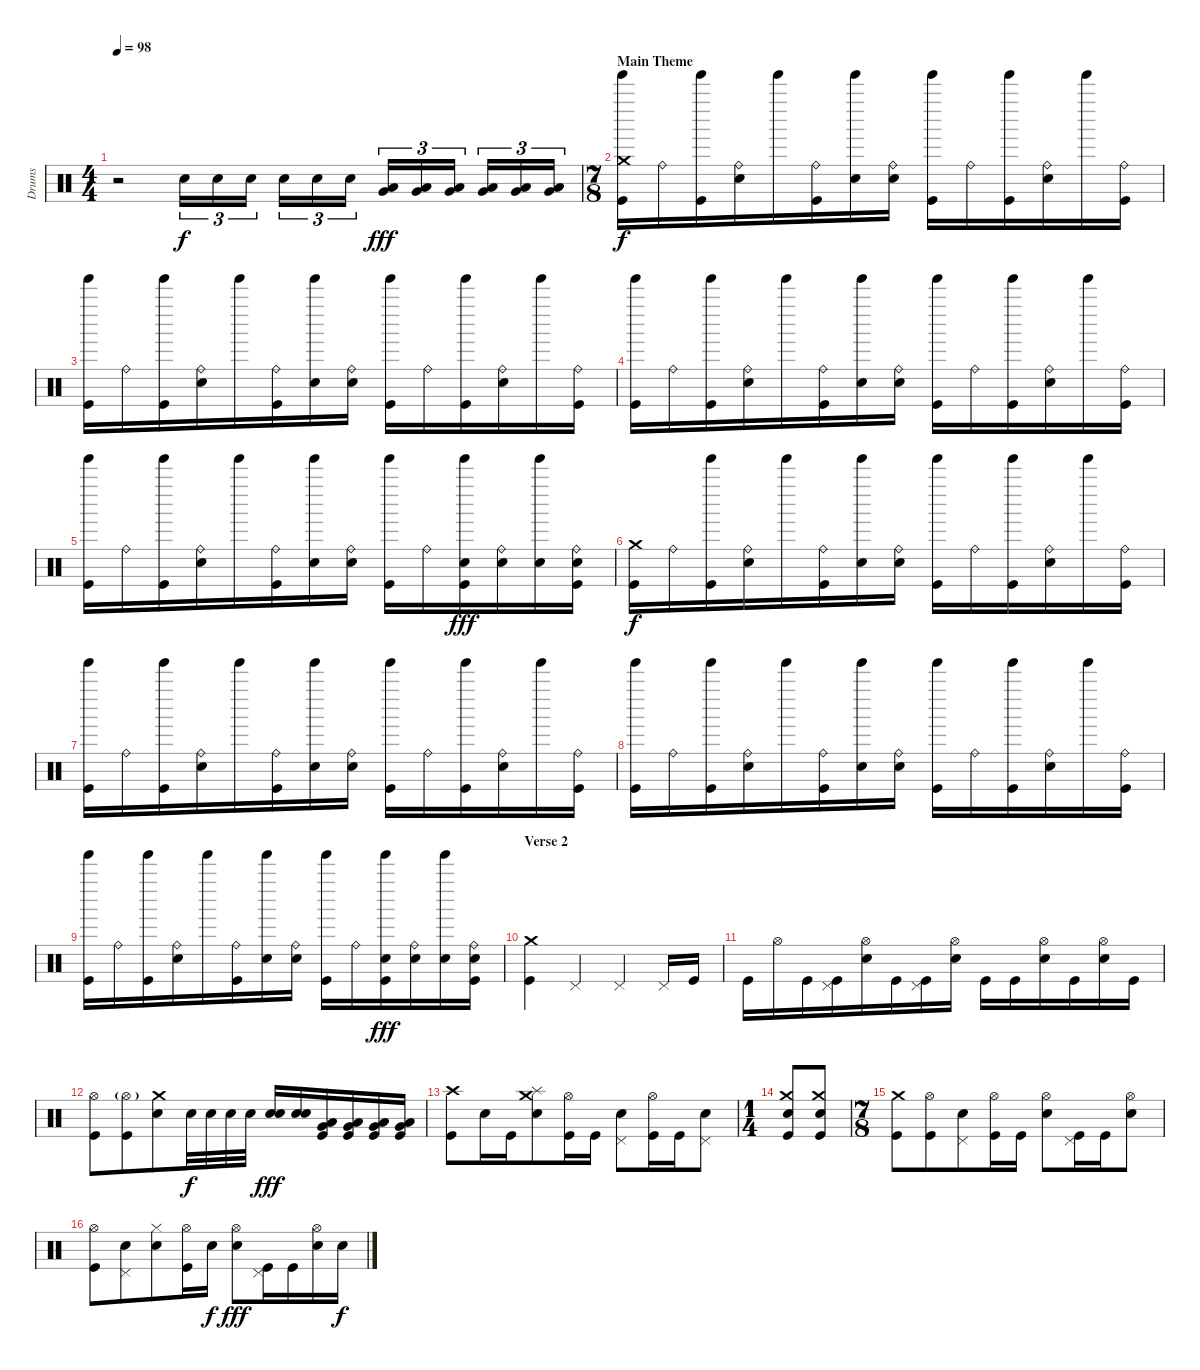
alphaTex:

\track ("Drums" "Drums") {instrument percussion}
\staff {score}
\articulation defaults
\ts (4 4)
\tempo 98
\clef neutral
\ks c
r.2{dy mp} "Electric Snare (hit)".16{tu (3 2) dy f} "Electric Snare (hit)".16{tu (3 2)} "Electric Snare (hit)".16{tu (3 2)} "Electric Snare (hit)".16{tu (3 2)} "Electric Snare (hit)".16{tu (3 2)} "Electric Snare (hit)".16{tu (3 2)} ("Very Low Tom (hit)" "Low Floor Tom (hit)").16{tu (3 2) dy fff} ("Very Low Tom (hit)" "Low Floor Tom (hit)").16{tu (3 2)} ("Very Low Tom (hit)" "Low Floor Tom (hit)").16{tu (3 2)} ("Very Low Tom (hit)" "Low Floor Tom (hit)").16{tu (3 2)} ("Very Low Tom (hit)" "Low Floor Tom (hit)").16{tu (3 2)} ("Very Low Tom (hit)" "Low Floor Tom (hit)").16{tu (3 2)} |
\ts (7 8)
\section ("" "Main Theme")
("Crash medium (hit)" "Tinkle Bell (hit)" "Kick (hit)").16{dy f volume 14} "Ride (bell)".16 ("Tinkle Bell (hit)" "Kick (hit)").16 ("Ride (bell)" "Electric Snare (hit)").16 "Tinkle Bell (hit)".16 ("Ride (bell)" "Kick (hit)").16 ("Tinkle Bell (hit)" "Electric Snare (hit)").16 ("Ride (bell)" "Electric Snare (hit)").16 ("Tinkle Bell (hit)" "Kick (hit)").16 "Ride (bell)".16 ("Tinkle Bell (hit)" "Kick (hit)").16 ("Ride (bell)" "Electric Snare (hit)").16 "Tinkle Bell (hit)".16 ("Ride (bell)" "Kick (hit)").16 |
("Tinkle Bell (hit)" "Kick (hit)").16 "Ride (bell)".16 ("Tinkle Bell (hit)" "Kick (hit)").16 ("Ride (bell)" "Electric Snare (hit)").16 "Tinkle Bell (hit)".16 ("Ride (bell)" "Kick (hit)").16 ("Tinkle Bell (hit)" "Electric Snare (hit)").16 ("Ride (bell)" "Electric Snare (hit)").16 ("Tinkle Bell (hit)" "Kick (hit)").16 "Ride (bell)".16 ("Tinkle Bell (hit)" "Kick (hit)").16 ("Ride (bell)" "Electric Snare (hit)").16 "Tinkle Bell (hit)".16 ("Ride (bell)" "Kick (hit)").16 |
("Tinkle Bell (hit)" "Kick (hit)").16 "Ride (bell)".16 ("Tinkle Bell (hit)" "Kick (hit)").16 ("Ride (bell)" "Electric Snare (hit)").16 "Tinkle Bell (hit)".16 ("Ride (bell)" "Kick (hit)").16 ("Tinkle Bell (hit)" "Electric Snare (hit)").16 ("Ride (bell)" "Electric Snare (hit)").16 ("Tinkle Bell (hit)" "Kick (hit)").16 "Ride (bell)".16 ("Tinkle Bell (hit)" "Kick (hit)").16 ("Ride (bell)" "Electric Snare (hit)").16 "Tinkle Bell (hit)".16 ("Ride (bell)" "Kick (hit)").16 |
("Tinkle Bell (hit)" "Kick (hit)").16 "Ride (bell)".16 ("Tinkle Bell (hit)" "Kick (hit)").16 ("Ride (bell)" "Electric Snare (hit)").16 "Tinkle Bell (hit)".16 ("Ride (bell)" "Kick (hit)").16 ("Tinkle Bell (hit)" "Electric Snare (hit)").16 ("Ride (bell)" "Electric Snare (hit)").16 ("Tinkle Bell (hit)" "Kick (hit)").16 "Ride (bell)".16 ("Tinkle Bell (hit)" "Electric Snare (hit)" "Kick (hit)").16{dy fff} ("Ride (bell)" "Electric Snare (hit)").16 ("Tinkle Bell (hit)" "Electric Snare (hit)").16 ("Ride (bell)" "Electric Snare (hit)" "Kick (hit)").16 |
("Crash medium (hit)" "Kick (hit)").16{dy f} "Ride (bell)".16 ("Tinkle Bell (hit)" "Kick (hit)").16 ("Ride (bell)" "Electric Snare (hit)").16 "Tinkle Bell (hit)".16 ("Ride (bell)" "Kick (hit)").16 ("Tinkle Bell (hit)" "Electric Snare (hit)").16 ("Ride (bell)" "Electric Snare (hit)").16 ("Tinkle Bell (hit)" "Kick (hit)").16 "Ride (bell)".16 ("Tinkle Bell (hit)" "Kick (hit)").16 ("Ride (bell)" "Electric Snare (hit)").16 "Tinkle Bell (hit)".16 ("Ride (bell)" "Kick (hit)").16 |
("Tinkle Bell (hit)" "Kick (hit)").16 "Ride (bell)".16 ("Tinkle Bell (hit)" "Kick (hit)").16 ("Ride (bell)" "Electric Snare (hit)").16 "Tinkle Bell (hit)".16 ("Ride (bell)" "Kick (hit)").16 ("Tinkle Bell (hit)" "Electric Snare (hit)").16 ("Ride (bell)" "Electric Snare (hit)").16 ("Tinkle Bell (hit)" "Kick (hit)").16 "Ride (bell)".16 ("Tinkle Bell (hit)" "Kick (hit)").16 ("Ride (bell)" "Electric Snare (hit)").16 "Tinkle Bell (hit)".16 ("Ride (bell)" "Kick (hit)").16 |
("Tinkle Bell (hit)" "Kick (hit)").16 "Ride (bell)".16 ("Tinkle Bell (hit)" "Kick (hit)").16 ("Ride (bell)" "Electric Snare (hit)").16 "Tinkle Bell (hit)".16 ("Ride (bell)" "Kick (hit)").16 ("Tinkle Bell (hit)" "Electric Snare (hit)").16 ("Ride (bell)" "Electric Snare (hit)").16 ("Tinkle Bell (hit)" "Kick (hit)").16 "Ride (bell)".16 ("Tinkle Bell (hit)" "Kick (hit)").16 ("Ride (bell)" "Electric Snare (hit)").16 "Tinkle Bell (hit)".16 ("Ride (bell)" "Kick (hit)").16 |
("Tinkle Bell (hit)" "Kick (hit)").16 "Ride (bell)".16 ("Tinkle Bell (hit)" "Kick (hit)").16 ("Ride (bell)" "Electric Snare (hit)").16 "Tinkle Bell (hit)".16 ("Ride (bell)" "Kick (hit)").16 ("Tinkle Bell (hit)" "Electric Snare (hit)").16 ("Ride (bell)" "Electric Snare (hit)").16 ("Tinkle Bell (hit)" "Kick (hit)").16 "Ride (bell)".16 ("Tinkle Bell (hit)" "Electric Snare (hit)" "Kick (hit)").16{dy fff} ("Ride (bell)" "Electric Snare (hit)").16 ("Tinkle Bell (hit)" "Electric Snare (hit)").16 ("Ride (bell)" "Electric Snare (hit)" "Kick (hit)").16 |
\section ("" "Verse 2")
("Crash medium (hit)" "Kick (hit)").4 "Pedal Hi-Hat (hit)".4 "Pedal Hi-Hat (hit)".4 "Pedal Hi-Hat (hit)".16 "Kick (hit)".16 |
"Kick (hit)".16 "Hi-Hat (open)".16 "Kick (hit)".16 ("Pedal Hi-Hat (hit)" "Kick (hit)").16 ("Hi-Hat (open)" "Electric Snare (hit)").16 "Kick (hit)".16 ("Pedal Hi-Hat (hit)" "Kick (hit)").16 ("Hi-Hat (open)" "Electric Snare (hit)").16 "Kick (hit)".16 "Kick (hit)".16 ("Hi-Hat (open)" "Electric Snare (hit)").16 "Kick (hit)".16 ("Hi-Hat (open)" "Electric Snare (hit)").16 "Kick (hit)".16 |
("Hi-Hat (open)" "Kick (hit)").8 ("Hi-Hat (open)"{g} "Kick (hit)").8 ("Crash medium (hit)" "Electric Snare (hit)").8 "Electric Snare (hit)".32{dy f} "Electric Snare (hit)".32 "Electric Snare (hit)".32 "Electric Snare (hit)".32 ("Electric Snare (hit)" "Electric Snare (hit)").16{dy fff} ("Electric Snare (hit)" "Electric Snare (hit)").16 ("Low Tom (hit)" "Very Low Tom (hit)" "Kick (hit)").16 ("Low Tom (hit)" "Very Low Tom (hit)" "Kick (hit)").16 ("Very Low Tom (hit)" "Low Floor Tom (hit)" "Kick (hit)").16 ("Very Low Tom (hit)" "Low Floor Tom (hit)" "Kick (hit)").16 |
("Crash high (hit)" "Kick (hit)").8 "Electric Snare (hit)".16 "Kick (hit)".16 ("Crash medium (hit)" "Splash (hit)" "Electric Snare (hit)").8 ("Hi-Hat (open)" "Kick (hit)").16 "Kick (hit)".16 ("Pedal Hi-Hat (hit)" "Electric Snare (hit)").8 ("Hi-Hat (open)" "Kick (hit)").16 "Kick (hit)".16 ("Pedal Hi-Hat (hit)" "Electric Snare (hit)").8 |
\ts (1 4)
("Crash medium (hit)" "Electric Snare (hit)" "Kick (hit)").8 ("Crash medium (hit)" "Electric Snare (hit)" "Kick (hit)").8 |
\ts (7 8)
("Crash medium (hit)" "Kick (hit)").8 ("Hi-Hat (open)" "Kick (hit)").8 ("Pedal Hi-Hat (hit)" "Electric Snare (hit)").8 ("Hi-Hat (open)" "Kick (hit)").16 "Kick (hit)".16 ("Hi-Hat (open)" "Electric Snare (hit)").8 ("Pedal Hi-Hat (hit)" "Kick (hit)").16 "Kick (hit)".16 ("Hi-Hat (open)" "Electric Snare (hit)").8 |
("Hi-Hat (open)" "Kick (hit)").8 ("Pedal Hi-Hat (hit)" "Electric Snare (hit)").8 ("Hi-Hat (closed)" "Electric Snare (hit)").8 ("Hi-Hat (open)" "Kick (hit)").16 "Electric Snare (hit)".16{dy f} ("Hi-Hat (open)" "Electric Snare (hit)").8{dy fff} ("Pedal Hi-Hat (hit)" "Kick (hit)").16 "Kick (hit)".16 ("Hi-Hat (open)" "Electric Snare (hit)").16 "Electric Snare (hit)".16{dy f}
